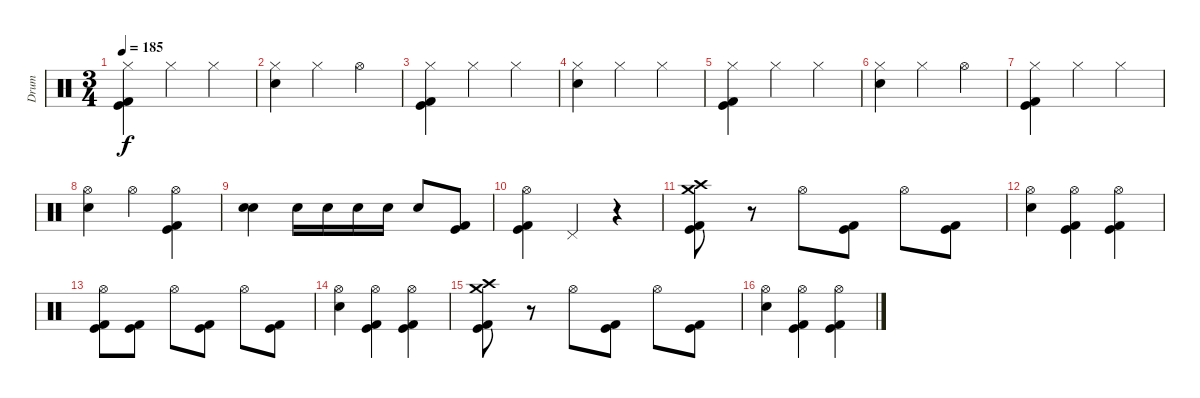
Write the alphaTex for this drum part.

\track ("Drum" "Drum") {instrument percussion}
\staff {score}
\articulation defaults
\ts (3 4)
\tempo 185
\clef neutral
\ks c
("Hi-Hat (closed)" "Kick (hit)" "Kick (hit) 2").4{dy f} "Hi-Hat (closed)".4 "Hi-Hat (closed)".4 |
("Hi-Hat (closed)" "Electric Snare (hit)").4 "Hi-Hat (closed)".4 "Hi-Hat (open)".4 |
("Hi-Hat (closed)" "Kick (hit)" "Kick (hit) 2").4 "Hi-Hat (closed)".4 "Hi-Hat (closed)".4 |
("Hi-Hat (closed)" "Electric Snare (hit)").4 "Hi-Hat (closed)".4 "Hi-Hat (closed)".4 |
("Hi-Hat (closed)" "Kick (hit)" "Kick (hit) 2").4 "Hi-Hat (closed)".4 "Hi-Hat (closed)".4 |
("Hi-Hat (closed)" "Electric Snare (hit)").4 "Hi-Hat (closed)".4 "Hi-Hat (open)".4 |
("Hi-Hat (closed)" "Kick (hit)" "Kick (hit) 2").4 "Hi-Hat (closed)".4 "Hi-Hat (closed)".4 |
("Hi-Hat (open)" "Electric Snare (hit)").4 "Hi-Hat (open)".4 ("Hi-Hat (open)" "Kick (hit)" "Kick (hit) 2").4 |
("Electric Snare (hit)" "Electric Snare (hit)").4{bu 240} "Electric Snare (hit)".16 "Electric Snare (hit)".16 "Electric Snare (hit)".16 "Electric Snare (hit)".16 "Electric Snare (hit)".8 ("Kick (hit)" "Kick (hit) 2").8 |
("Hi-Hat (open)" "Kick (hit)" "Kick (hit) 2").4 "Pedal Hi-Hat (hit)".4 r.4 |
("Crash medium (hit)" "Crash high (hit)" "Kick (hit)" "Kick (hit) 2").8 r.8 "Hi-Hat (open)".8 ("Kick (hit)" "Kick (hit) 2").8 "Hi-Hat (open)".8 ("Kick (hit)" "Kick (hit) 2").8 |
("Hi-Hat (open)" "Electric Snare (hit)").4 ("Hi-Hat (open)" "Kick (hit)" "Kick (hit) 2").4 ("Hi-Hat (open)" "Kick (hit)" "Kick (hit) 2").4 |
("Hi-Hat (open)" "Kick (hit)" "Kick (hit) 2").8 ("Kick (hit)" "Kick (hit) 2").8 "Hi-Hat (open)".8 ("Kick (hit)" "Kick (hit) 2").8 "Hi-Hat (open)".8 ("Kick (hit)" "Kick (hit) 2").8 |
("Hi-Hat (open)" "Electric Snare (hit)").4 ("Hi-Hat (open)" "Kick (hit)" "Kick (hit) 2").4 ("Hi-Hat (open)" "Kick (hit)" "Kick (hit) 2").4 |
("Crash medium (hit)" "Crash high (hit)" "Kick (hit)" "Kick (hit) 2").8 r.8 "Hi-Hat (open)".8 ("Kick (hit)" "Kick (hit) 2").8 "Hi-Hat (open)".8 ("Kick (hit)" "Kick (hit) 2").8 |
("Hi-Hat (open)" "Electric Snare (hit)").4 ("Hi-Hat (open)" "Kick (hit)" "Kick (hit) 2").4 ("Hi-Hat (open)" "Kick (hit)" "Kick (hit) 2").4
